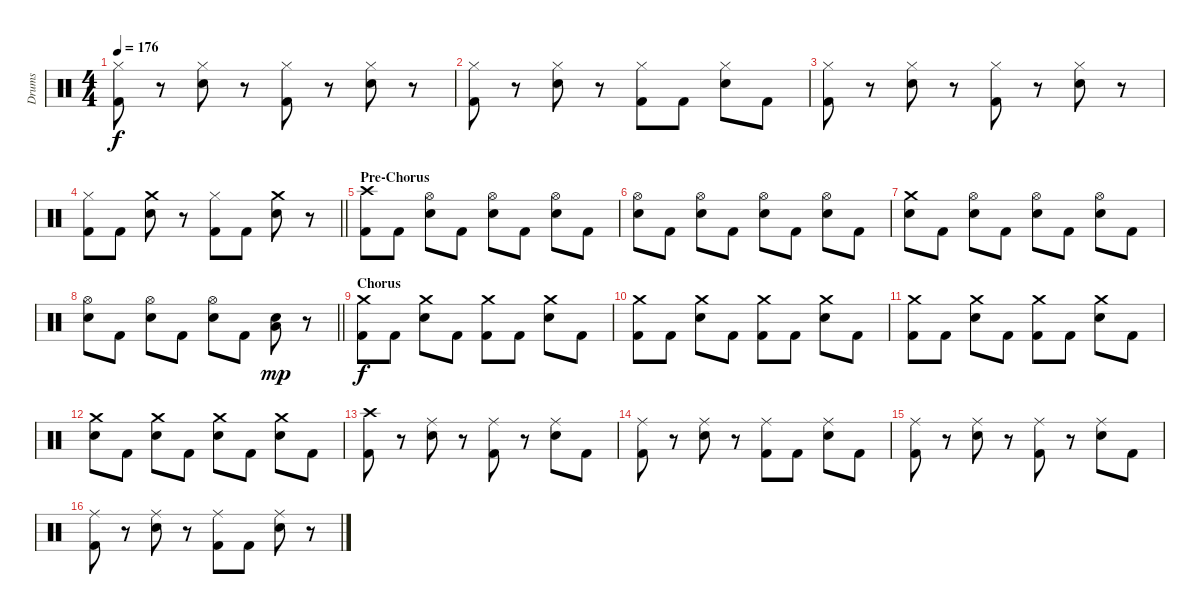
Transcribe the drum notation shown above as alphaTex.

\track ("Drums" "Drums") {instrument percussion}
\staff {score}
\articulation defaults
\ts (4 4)
\tempo 176
\clef neutral
\ks c
("Hi-Hat (closed)" "Kick (hit) 2").8{dy f} r.8 ("Hi-Hat (closed)" "Electric Snare (hit)").8 r.8 ("Hi-Hat (closed)" "Kick (hit) 2").8 r.8 ("Hi-Hat (closed)" "Electric Snare (hit)").8 r.8 |
("Hi-Hat (closed)" "Kick (hit) 2").8 r.8 ("Hi-Hat (closed)" "Electric Snare (hit)").8 r.8 ("Hi-Hat (closed)" "Kick (hit) 2").8 "Kick (hit) 2".8 ("Hi-Hat (closed)" "Electric Snare (hit)").8 "Kick (hit) 2".8 |
("Hi-Hat (closed)" "Kick (hit) 2").8 r.8 ("Hi-Hat (closed)" "Electric Snare (hit)").8 r.8 ("Hi-Hat (closed)" "Kick (hit) 2").8 r.8 ("Hi-Hat (closed)" "Electric Snare (hit)").8 r.8 |
\barLineRight lightlight
("Hi-Hat (closed)" "Kick (hit) 2").8 "Kick (hit) 2".8 ("Crash medium (hit)" "Electric Snare (hit)").8 r.8 ("Hi-Hat (closed)" "Kick (hit) 2").8 "Kick (hit) 2".8 ("Crash medium (hit)" "Electric Snare (hit)").8 r.8 |
\section ("" "Pre-Chorus")
("Crash high (hit)" "Kick (hit) 2").8 "Kick (hit) 2".8 ("Hi-Hat (open)" "Electric Snare (hit)").8 "Kick (hit) 2".8 ("Hi-Hat (open)" "Electric Snare (hit)").8 "Kick (hit) 2".8 ("Hi-Hat (open)" "Electric Snare (hit)").8 "Kick (hit) 2".8 |
("Hi-Hat (open)" "Electric Snare (hit)").8 "Kick (hit) 2".8 ("Hi-Hat (open)" "Electric Snare (hit)").8 "Kick (hit) 2".8 ("Hi-Hat (open)" "Electric Snare (hit)").8 "Kick (hit) 2".8 ("Hi-Hat (open)" "Electric Snare (hit)").8 "Kick (hit) 2".8 |
("Crash medium (hit)" "Electric Snare (hit)").8 "Kick (hit) 2".8 ("Hi-Hat (open)" "Electric Snare (hit)").8 "Kick (hit) 2".8 ("Hi-Hat (open)" "Electric Snare (hit)").8 "Kick (hit) 2".8 ("Hi-Hat (open)" "Electric Snare (hit)").8 "Kick (hit) 2".8 |
\barLineRight lightlight
("Hi-Hat (open)" "Electric Snare (hit)").8 "Kick (hit) 2".8 ("Hi-Hat (open)" "Electric Snare (hit)").8 "Kick (hit) 2".8 ("Hi-Hat (open)" "Electric Snare (hit)").8 "Kick (hit) 2".8 ("Low Floor Tom (hit)" "Electric Snare (hit)").8{dy mp} r.8 |
\section ("" "Chorus")
("Crash medium (hit)" "Kick (hit) 2").8{dy f} "Kick (hit) 2".8 ("Crash medium (hit)" "Electric Snare (hit)").8 "Kick (hit) 2".8 ("Crash medium (hit)" "Kick (hit) 2").8 "Kick (hit) 2".8 ("Crash medium (hit)" "Electric Snare (hit)").8 "Kick (hit) 2".8 |
("Crash medium (hit)" "Kick (hit) 2").8 "Kick (hit) 2".8 ("Crash medium (hit)" "Electric Snare (hit)").8 "Kick (hit) 2".8 ("Crash medium (hit)" "Kick (hit) 2").8 "Kick (hit) 2".8 ("Crash medium (hit)" "Electric Snare (hit)").8 "Kick (hit) 2".8 |
("Crash medium (hit)" "Kick (hit) 2").8 "Kick (hit) 2".8 ("Crash medium (hit)" "Electric Snare (hit)").8 "Kick (hit) 2".8 ("Crash medium (hit)" "Kick (hit) 2").8 "Kick (hit) 2".8 ("Crash medium (hit)" "Electric Snare (hit)").8 "Kick (hit) 2".8 |
("Crash medium (hit)" "Electric Snare (hit)").8 "Kick (hit) 2".8 ("Crash medium (hit)" "Electric Snare (hit)").8 "Kick (hit) 2".8 ("Crash medium (hit)" "Electric Snare (hit)").8 "Kick (hit) 2".8 ("Crash medium (hit)" "Electric Snare (hit)").8 "Kick (hit) 2".8 |
("Crash high (hit)" "Kick (hit) 2").8 r.8 ("Ride (middle)" "Electric Snare (hit)").8 r.8 ("Ride (middle)" "Kick (hit) 2").8 r.8 ("Ride (middle)" "Electric Snare (hit)").8 "Kick (hit) 2".8 |
("Ride (middle)" "Kick (hit) 2").8 r.8 ("Ride (middle)" "Electric Snare (hit)").8 r.8 ("Ride (middle)" "Kick (hit) 2").8 "Kick (hit) 2".8 ("Ride (middle)" "Electric Snare (hit)").8 "Kick (hit) 2".8 |
("Ride (middle)" "Kick (hit) 2").8 r.8 ("Ride (middle)" "Electric Snare (hit)").8 r.8 ("Ride (middle)" "Kick (hit) 2").8 r.8 ("Ride (middle)" "Electric Snare (hit)").8 "Kick (hit) 2".8 |
("Ride (middle)" "Kick (hit) 2").8 r.8 ("Ride (middle)" "Electric Snare (hit)").8 r.8 ("Ride (middle)" "Kick (hit) 2").8 "Kick (hit) 2".8 ("Ride (middle)" "Electric Snare (hit)").8 r.8
